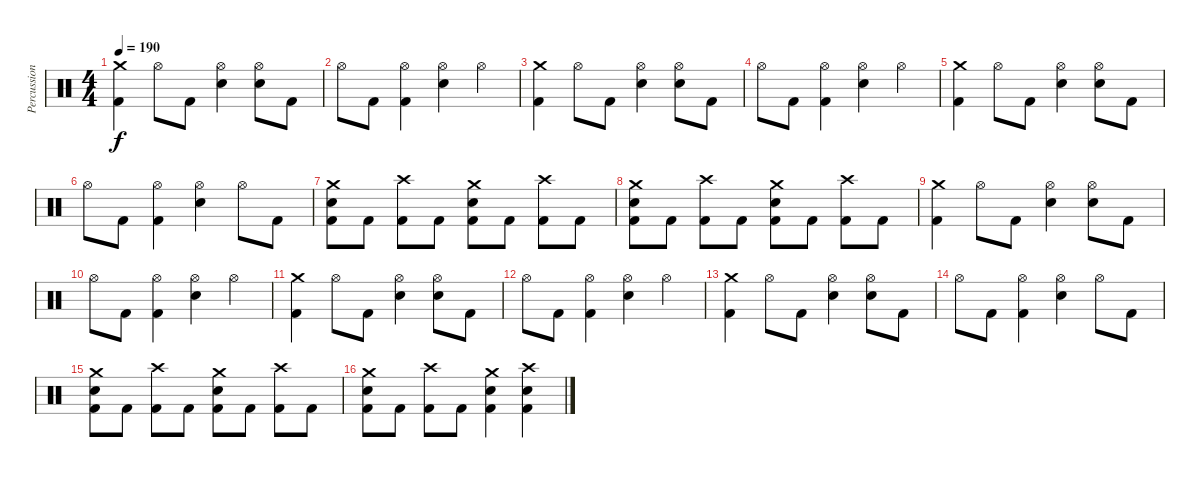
\track ("Percussion" "Percussion") {instrument percussion}
\staff {score}
\articulation defaults
\ts (4 4)
\tempo 190
\clef neutral
\ks c
("Crash medium (hit)" "Kick (hit) 2").4{dy f} "Hi-Hat (open)".8 "Kick (hit) 2".8 ("Hi-Hat (open)" "Snare (hit) 2").4 ("Hi-Hat (open)" "Snare (hit) 2").8 "Kick (hit) 2".8 |
"Hi-Hat (open)".8 "Kick (hit) 2".8 ("Hi-Hat (open)" "Kick (hit) 2").4 ("Hi-Hat (open)" "Snare (hit) 2").4 "Hi-Hat (open)".4 |
("Crash medium (hit)" "Kick (hit) 2").4 "Hi-Hat (open)".8 "Kick (hit) 2".8 ("Hi-Hat (open)" "Snare (hit) 2").4 ("Hi-Hat (open)" "Snare (hit) 2").8 "Kick (hit) 2".8 |
"Hi-Hat (open)".8 "Kick (hit) 2".8 ("Hi-Hat (open)" "Kick (hit) 2").4 ("Hi-Hat (open)" "Snare (hit) 2").4 "Hi-Hat (open)".4 |
("Crash medium (hit)" "Kick (hit) 2").4 "Hi-Hat (open)".8 "Kick (hit) 2".8 ("Hi-Hat (open)" "Snare (hit) 2").4 ("Hi-Hat (open)" "Snare (hit) 2").8 "Kick (hit) 2".8 |
"Hi-Hat (open)".8 "Kick (hit) 2".8 ("Hi-Hat (open)" "Kick (hit) 2").4 ("Hi-Hat (open)" "Snare (hit) 2").4 "Hi-Hat (open)".8 "Kick (hit) 2".8 |
("Crash medium (hit)" "Snare (hit) 2" "Kick (hit) 2").8 "Kick (hit) 2".8 ("Crash high (hit)" "Kick (hit) 2").8 "Kick (hit) 2".8 ("Crash medium (hit)" "Snare (hit) 2" "Kick (hit) 2").8 "Kick (hit) 2".8 ("Crash high (hit)" "Kick (hit) 2").8 "Kick (hit) 2".8 |
("Crash medium (hit)" "Snare (hit) 2" "Kick (hit) 2").8 "Kick (hit) 2".8 ("Crash high (hit)" "Kick (hit) 2").8 "Kick (hit) 2".8 ("Crash medium (hit)" "Snare (hit) 2" "Kick (hit) 2").8 "Kick (hit) 2".8 ("Crash high (hit)" "Kick (hit) 2").8 "Kick (hit) 2".8 |
("Crash medium (hit)" "Kick (hit) 2").4 "Hi-Hat (open)".8 "Kick (hit) 2".8 ("Hi-Hat (open)" "Snare (hit) 2").4 ("Hi-Hat (open)" "Snare (hit) 2").8 "Kick (hit) 2".8 |
"Hi-Hat (open)".8 "Kick (hit) 2".8 ("Hi-Hat (open)" "Kick (hit) 2").4 ("Hi-Hat (open)" "Snare (hit) 2").4 "Hi-Hat (open)".4 |
("Crash medium (hit)" "Kick (hit) 2").4 "Hi-Hat (open)".8 "Kick (hit) 2".8 ("Hi-Hat (open)" "Snare (hit) 2").4 ("Hi-Hat (open)" "Snare (hit) 2").8 "Kick (hit) 2".8 |
"Hi-Hat (open)".8 "Kick (hit) 2".8 ("Hi-Hat (open)" "Kick (hit) 2").4 ("Hi-Hat (open)" "Snare (hit) 2").4 "Hi-Hat (open)".4 |
("Crash medium (hit)" "Kick (hit) 2").4 "Hi-Hat (open)".8 "Kick (hit) 2".8 ("Hi-Hat (open)" "Snare (hit) 2").4 ("Hi-Hat (open)" "Snare (hit) 2").8 "Kick (hit) 2".8 |
"Hi-Hat (open)".8 "Kick (hit) 2".8 ("Hi-Hat (open)" "Kick (hit) 2").4 ("Hi-Hat (open)" "Snare (hit) 2").4 "Hi-Hat (open)".8 "Kick (hit) 2".8 |
("Crash medium (hit)" "Snare (hit) 2" "Kick (hit) 2").8 "Kick (hit) 2".8 ("Crash high (hit)" "Kick (hit) 2").8 "Kick (hit) 2".8 ("Crash medium (hit)" "Snare (hit) 2" "Kick (hit) 2").8 "Kick (hit) 2".8 ("Crash high (hit)" "Kick (hit) 2").8 "Kick (hit) 2".8 |
("Crash medium (hit)" "Snare (hit) 2" "Kick (hit) 2").8 "Kick (hit) 2".8 ("Crash high (hit)" "Kick (hit) 2").8 "Kick (hit) 2".8 ("Crash medium (hit)" "Snare (hit) 2" "Kick (hit) 2").4 ("Crash high (hit)" "Snare (hit) 2" "Kick (hit) 2").4
